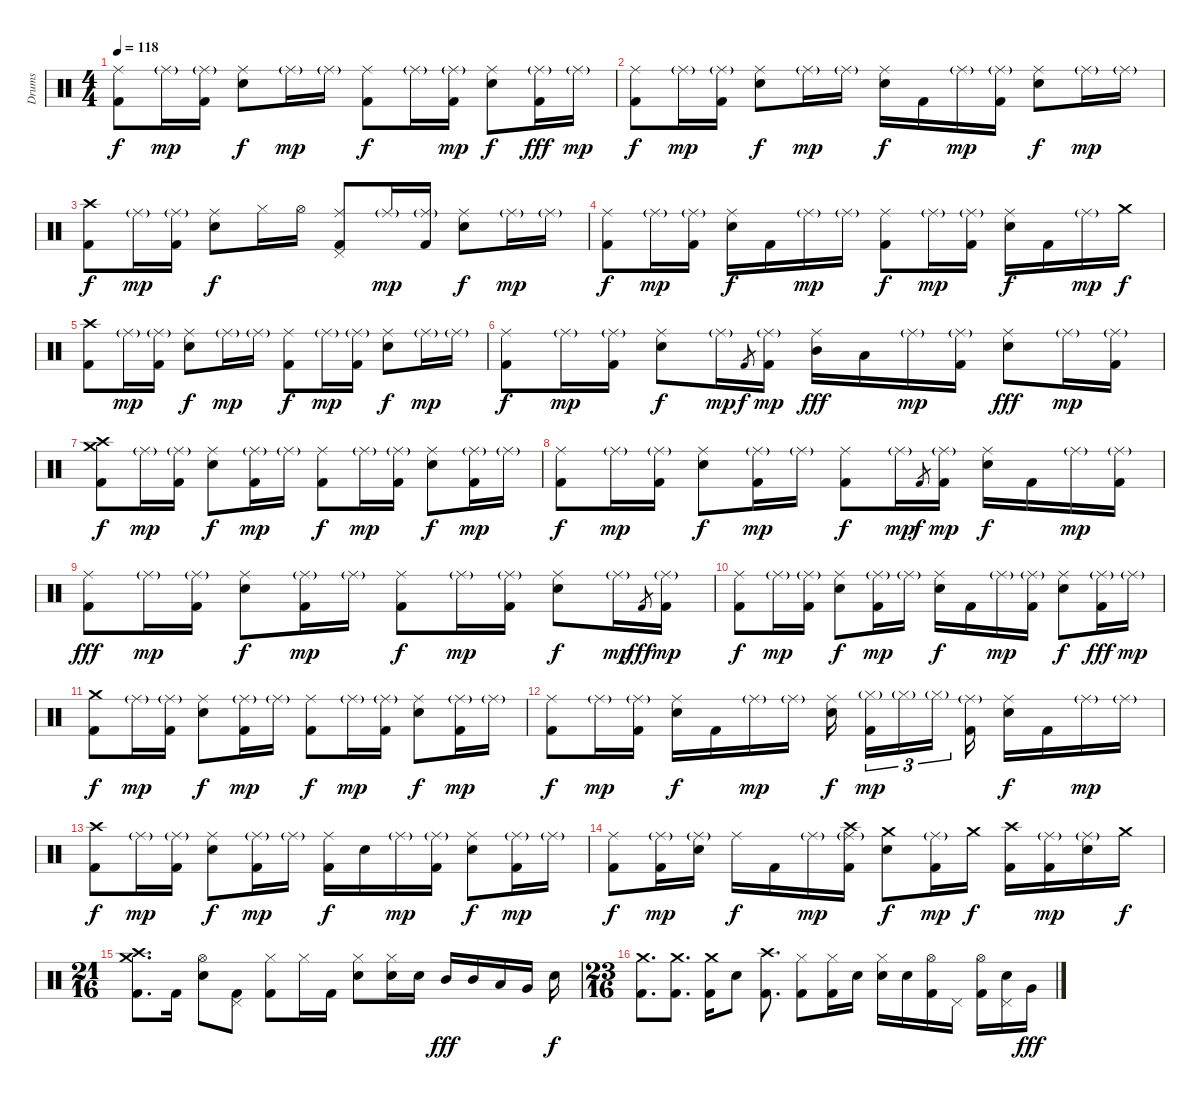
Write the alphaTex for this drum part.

\track ("Drums" "Drums") {instrument percussion}
\staff {score}
\articulation defaults
\ts (4 4)
\tempo 118
\clef neutral
\ks c
("Ride (middle)" "Kick (hit) 2").8{dy f} "Ride (middle)"{g}.16{dy mp} ("Ride (middle)"{g} "Kick (hit) 2").16 ("Ride (middle)" "Electric Snare (hit)").8{dy f} "Ride (middle)"{g}.16{dy mp} "Ride (middle)"{g}.16 ("Ride (middle)" "Kick (hit) 2").8{dy f} "Ride (middle)"{g}.16 ("Ride (middle)"{g} "Kick (hit) 2").16{dy mp} ("Ride (middle)" "Electric Snare (hit)").8{dy f} ("Ride (middle)"{g} "Kick (hit) 2").16{dy fff} "Ride (middle)"{g}.16{dy mp} |
("Ride (middle)" "Kick (hit) 2").8{dy f} "Ride (middle)"{g}.16{dy mp} ("Ride (middle)"{g} "Kick (hit) 2").16 ("Ride (middle)" "Electric Snare (hit)").8{dy f} "Ride (middle)"{g}.16{dy mp} "Ride (middle)"{g}.16 ("Ride (middle)" "Electric Snare (hit)").16{dy f} "Kick (hit) 2".16 "Ride (middle)"{g}.16{dy mp} ("Ride (middle)"{g} "Kick (hit) 2").16 ("Ride (middle)" "Electric Snare (hit)").8{dy f} "Ride (middle)"{g}.16{dy mp} "Ride (middle)"{g}.16 |
("Crash high (hit)" "Kick (hit) 2").8{dy f} "Ride (middle)"{g}.16{dy mp} ("Ride (middle)"{g} "Kick (hit) 2").16 ("Ride (middle)" "Electric Snare (hit)").8{dy f} "Hi-Hat (closed)".16 "Hi-Hat (open)".16 ("Pedal Hi-Hat (hit)" "Ride (middle)" "Kick (hit) 2").8 "Ride (middle)"{g}.16{dy mp} ("Ride (middle)"{g} "Kick (hit) 2").16 ("Ride (middle)" "Electric Snare (hit)").8{dy f} "Ride (middle)"{g}.16{dy mp} "Ride (middle)"{g}.16 |
("Ride (middle)" "Kick (hit) 2").8{dy f} "Ride (middle)"{g}.16{dy mp} ("Ride (middle)"{g} "Kick (hit) 2").16 ("Ride (middle)" "Electric Snare (hit)").16{dy f} "Kick (hit) 2".16 "Ride (middle)"{g}.16{dy mp} "Ride (middle)"{g}.16 ("Ride (middle)" "Kick (hit) 2").8{dy f} "Ride (middle)"{g}.16{dy mp} ("Ride (middle)"{g} "Kick (hit) 2").16 ("Ride (middle)" "Electric Snare (hit)").16{dy f} "Kick (hit) 2".16 "Ride (middle)"{g}.16{dy mp} "Crash medium (hit)".16{dy f} |
("Crash high (hit)" "Kick (hit) 2").8 "Ride (middle)"{g}.16{dy mp} ("Ride (middle)"{g} "Kick (hit) 2").16 ("Ride (middle)" "Electric Snare (hit)").8{dy f} "Ride (middle)"{g}.16{dy mp} "Ride (middle)"{g}.16 ("Ride (middle)" "Kick (hit) 2").8{dy f} "Ride (middle)"{g}.16{dy mp} ("Ride (middle)"{g} "Kick (hit) 2").16 ("Ride (middle)" "Electric Snare (hit)").8{dy f} "Ride (middle)"{g}.16{dy mp} "Ride (middle)"{g}.16 |
("Ride (middle)" "Kick (hit) 2").8{dy f} "Ride (middle)"{g}.16{dy mp} ("Ride (middle)"{g} "Kick (hit) 2").16 ("Ride (middle)" "Electric Snare (hit)").8{dy f} "Ride (middle)"{g}.16{dy mp} "Kick (hit) 2".8{gr dy f} ("Ride (middle)"{g} "Kick (hit) 2").16{dy mp} ("Ride (middle)" "Mid Tom (hit)").16{dy fff} "Low Tom (hit)".16 "Ride (middle)"{g}.16{dy mp} ("Ride (middle)"{g} "Kick (hit) 2").16 ("Ride (middle)" "Electric Snare (hit)").8{dy fff} "Ride (middle)"{g}.16{dy mp} ("Ride (middle)"{g} "Kick (hit) 2").16 |
("Crash medium (hit)" "Crash high (hit)" "Kick (hit) 2").8{dy f} "Ride (middle)"{g}.16{dy mp} ("Ride (middle)"{g} "Kick (hit) 2").16 ("Ride (middle)" "Electric Snare (hit)").8{dy f} ("Ride (middle)"{g} "Kick (hit) 2").16{dy mp} "Ride (middle)"{g}.16 ("Ride (middle)" "Kick (hit) 2").8{dy f} "Ride (middle)"{g}.16{dy mp} ("Ride (middle)"{g} "Kick (hit) 2").16 ("Ride (middle)" "Electric Snare (hit)").8{dy f} ("Ride (middle)"{g} "Kick (hit) 2").16{dy mp} "Ride (middle)"{g}.16 |
("Ride (middle)" "Kick (hit) 2").8{dy f} "Ride (middle)"{g}.16{dy mp} ("Ride (middle)"{g} "Kick (hit) 2").16 ("Ride (middle)" "Electric Snare (hit)").8{dy f} ("Ride (middle)"{g} "Kick (hit) 2").16{dy mp} "Ride (middle)"{g}.16 ("Ride (middle)" "Kick (hit) 2").8{dy f} "Ride (middle)"{g}.16{dy mp} "Kick (hit) 2".8{gr dy f} ("Ride (middle)"{g} "Kick (hit) 2").16{dy mp} ("Ride (middle)" "Electric Snare (hit)").16{dy f} "Kick (hit) 2".16 "Ride (middle)"{g}.16{dy mp} ("Ride (middle)"{g} "Kick (hit) 2").16 |
("Ride (middle)" "Kick (hit) 2").8{dy fff} "Ride (middle)"{g}.16{dy mp} ("Ride (middle)"{g} "Kick (hit) 2").16 ("Ride (middle)" "Electric Snare (hit)").8{dy f} ("Ride (middle)"{g} "Kick (hit) 2").16{dy mp} "Ride (middle)"{g}.16 ("Ride (middle)" "Kick (hit) 2").8{dy f} "Ride (middle)"{g}.16{dy mp} ("Ride (middle)"{g} "Kick (hit) 2").16 ("Ride (middle)" "Electric Snare (hit)").8{dy f} "Ride (middle)"{g}.16{dy mp} "Kick (hit) 2".8{gr dy fff} ("Ride (middle)"{g} "Kick (hit) 2").16{dy mp} |
("Ride (middle)" "Kick (hit) 2").8{dy f} "Ride (middle)"{g}.16{dy mp} ("Ride (middle)"{g} "Kick (hit) 2").16 ("Ride (middle)" "Electric Snare (hit)").8{dy f} ("Ride (middle)"{g} "Kick (hit) 2").16{dy mp} "Ride (middle)"{g}.16 ("Ride (middle)" "Electric Snare (hit)").16{dy f} "Kick (hit) 2".16 "Ride (middle)"{g}.16{dy mp} ("Ride (middle)"{g} "Kick (hit) 2").16 ("Ride (middle)" "Electric Snare (hit)").8{dy f} ("Ride (middle)"{g} "Kick (hit) 2").16{dy fff} "Ride (middle)"{g}.16{dy mp} |
("Crash medium (hit)" "Kick (hit) 2").8{dy f} "Ride (middle)"{g}.16{dy mp} ("Ride (middle)"{g} "Kick (hit) 2").16 ("Ride (middle)" "Electric Snare (hit)").8{dy f} ("Ride (middle)"{g} "Kick (hit) 2").16{dy mp} "Ride (middle)"{g}.16 ("Ride (middle)" "Kick (hit) 2").8{dy f} "Ride (middle)"{g}.16{dy mp} ("Ride (middle)"{g} "Kick (hit) 2").16 ("Ride (middle)" "Electric Snare (hit)").8{dy f} ("Ride (middle)"{g} "Kick (hit) 2").16{dy mp} "Ride (middle)"{g}.16 |
("Ride (middle)" "Kick (hit) 2").8{dy f} "Ride (middle)"{g}.16{dy mp} ("Ride (middle)"{g} "Kick (hit) 2").16 ("Ride (middle)" "Electric Snare (hit)").16{dy f} "Kick (hit) 2".16 "Ride (middle)"{g}.16{dy mp} "Ride (middle)"{g}.16 ("Ride (middle)" "Electric Snare (hit)").16{dy f beam splitsecondary} ("Hi-Hat (closed)"{g} "Kick (hit) 2").16{tu (3 2) dy mp} "Hi-Hat (closed)"{g}.16{tu (3 2)} "Hi-Hat (closed)"{g}.16{tu (3 2) beam splitsecondary} ("Ride (middle)"{g} "Kick (hit) 2").16 ("Ride (middle)" "Electric Snare (hit)").16{dy f} "Kick (hit) 2".16 "Ride (middle)"{g}.16{dy mp} "Ride (middle)"{g}.16 |
("Crash high (hit)" "Kick (hit) 2").8{dy f} "Ride (middle)"{g}.16{dy mp} ("Ride (middle)"{g} "Kick (hit) 2").16 ("Ride (middle)" "Electric Snare (hit)").8{dy f} ("Ride (middle)"{g} "Kick (hit) 2").16{dy mp} "Ride (middle)"{g}.16 ("Ride (middle)" "Kick (hit) 2").16{dy f} "Electric Snare (hit)".16 "Ride (middle)"{g}.16{dy mp} ("Ride (middle)"{g} "Kick (hit) 2").16 ("Ride (middle)" "Electric Snare (hit)").8{dy f} ("Ride (middle)"{g} "Kick (hit) 2").16{dy mp} "Ride (middle)"{g}.16 |
("Ride (middle)" "Kick (hit) 2").8{dy f} ("Ride (middle)"{g} "Kick (hit) 2").16{dy mp} ("Ride (middle)"{g} "Electric Snare (hit)").16 "Ride (middle)".16{dy f} "Kick (hit) 2".16 "Ride (middle)"{g}.16{dy mp} ("Crash high (hit)" "Ride (middle)"{g} "Kick (hit) 2").16 ("Crash medium (hit)" "Electric Snare (hit)").8{dy f} ("Ride (middle)"{g} "Kick (hit) 2").16{dy mp} "Crash medium (hit)".16{dy f} ("Crash high (hit)" "Kick (hit) 2").16 ("Ride (middle)"{g} "Kick (hit) 2").16{dy mp} ("Ride (middle)"{g} "Electric Snare (hit)").16 "Crash medium (hit)".16{dy f} |
\ts (21 16)
("Crash medium (hit)" "Crash high (hit)" "Kick (hit) 2").8{d} "Kick (hit) 2".16 ("Hi-Hat (open)" "Electric Snare (hit)").8 ("Pedal Hi-Hat (hit)" "Kick (hit) 2").8 ("Hi-Hat (closed)" "Kick (hit) 2").8 "Hi-Hat (closed)".16 "Kick (hit) 2".16 ("Hi-Hat (closed)" "Electric Snare (hit)").8 ("Hi-Hat (closed)" "Electric Snare (hit)").16 "Electric Snare (hit)".16 "Mid Tom (hit)".16{dy fff} "Mid Tom (hit)".16 "Low Tom (hit)".16 "Very Low Tom (hit)".16 "Electric Snare (hit)".16{dy f} |
\ts (23 16)
("Crash medium (hit)" "Kick (hit) 2").8{d} ("Crash medium (hit)" "Kick (hit) 2").8{d} ("Crash medium (hit)" "Kick (hit) 2").16 "Electric Snare (hit)".8 ("Crash high (hit)" "Kick (hit) 2").8{d} ("Hi-Hat (closed)" "Kick (hit) 2").8 ("Hi-Hat (closed)" "Kick (hit) 2").16 "Electric Snare (hit)".16 ("Hi-Hat (closed)" "Electric Snare (hit)").16 "Electric Snare (hit)".16 ("Hi-Hat (open)" "Kick (hit) 2").16 "Pedal Hi-Hat (hit)".16 ("Hi-Hat (open)" "Kick (hit) 2").16 ("Pedal Hi-Hat (hit)" "Electric Snare (hit)").16 "Very Low Tom (hit)".16{dy fff}
